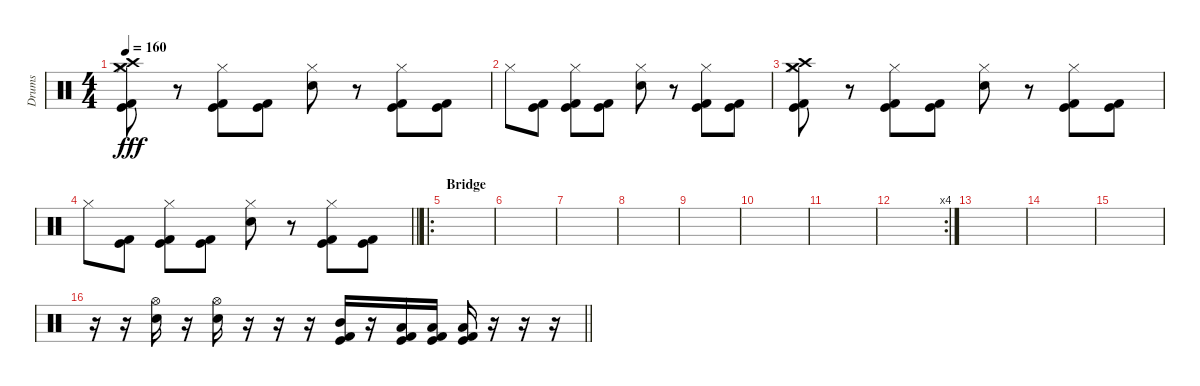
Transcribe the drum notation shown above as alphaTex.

\track ("Drums" "Drums") {instrument percussion}
\staff {score}
\articulation defaults
\ts (4 4)
\tempo 160
\clef neutral
\ks c
("Kick (hit) 2" "Kick (hit)" "Hi-Hat (closed)" "Crash high (hit)" "Crash medium (hit)").8{dy fff} r.8 ("Kick (hit) 2" "Kick (hit)" "Hi-Hat (closed)").8 ("Kick (hit) 2" "Kick (hit)").8 ("Electric Snare (hit)" "Hi-Hat (closed)").8 r.8 ("Kick (hit) 2" "Kick (hit)" "Hi-Hat (closed)").8 ("Kick (hit) 2" "Kick (hit)").8 |
"Hi-Hat (closed)".8 ("Kick (hit) 2" "Kick (hit)").8 ("Kick (hit) 2" "Kick (hit)" "Hi-Hat (closed)").8 ("Kick (hit) 2" "Kick (hit)").8 ("Electric Snare (hit)" "Hi-Hat (closed)").8 r.8 ("Kick (hit) 2" "Kick (hit)" "Hi-Hat (closed)").8 ("Kick (hit) 2" "Kick (hit)").8 |
("Kick (hit) 2" "Kick (hit)" "Hi-Hat (closed)" "Crash high (hit)" "Crash medium (hit)").8 r.8 ("Kick (hit) 2" "Kick (hit)" "Hi-Hat (closed)").8 ("Kick (hit) 2" "Kick (hit)").8 ("Electric Snare (hit)" "Hi-Hat (closed)").8 r.8 ("Kick (hit) 2" "Kick (hit)" "Hi-Hat (closed)").8 ("Kick (hit) 2" "Kick (hit)").8 |
\barLineRight lightlight "Hi-Hat (closed)".8
("Kick (hit) 2" "Kick (hit)").8 ("Kick (hit) 2" "Kick (hit)" "Hi-Hat (closed)").8 ("Kick (hit) 2" "Kick (hit)").8 ("Electric Snare (hit)" "Hi-Hat (closed)").8 r.8 ("Kick (hit) 2" "Kick (hit)" "Hi-Hat (closed)").8 ("Kick (hit) 2" "Kick (hit)").8 |
\ro
\section ("" "Bridge")
|
|
|
|
|
|
|
\rc 4
|
|
|
|
\barLineRight lightlight
r.16 r.16 ("Electric Snare (hit)" "Hi-Hat (open)").16 r.16 ("Electric Snare (hit)" "Hi-Hat (open)").16 r.16 r.16 r.16 ("Mid Tom (hit)" "Kick (hit) 2" "Kick (hit)").16 r.16 ("Low Tom (hit)" "Kick (hit) 2" "Kick (hit)").16 ("Low Tom (hit)" "Kick (hit) 2" "Kick (hit)").16 ("Low Tom (hit)" "Kick (hit) 2" "Kick (hit)").16 r.16 r.16 r.16
